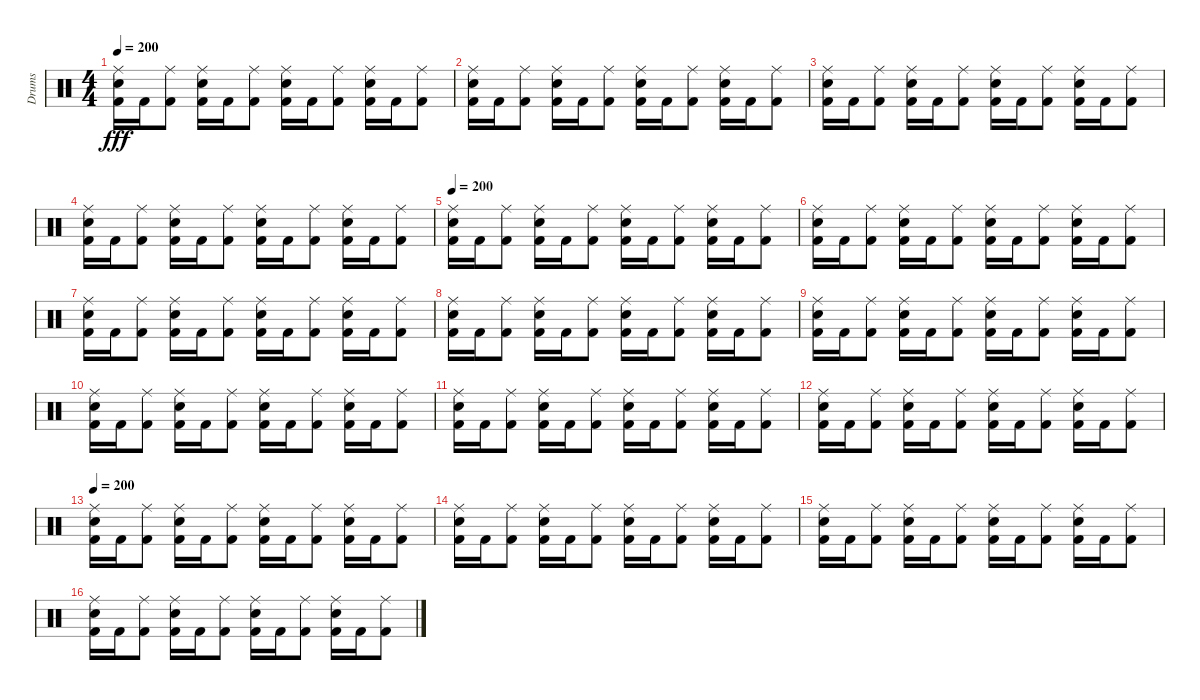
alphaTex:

\track ("Drums" "Drums") {instrument percussion}
\staff {score}
\articulation defaults
\ts (4 4)
\tempo 200
\clef neutral
\ks c
("Ride (middle)" "Electric Snare (hit)" "Kick (hit) 2").16{dy fff} "Kick (hit) 2".16 ("Ride (middle)" "Kick (hit) 2").8 ("Ride (middle)" "Electric Snare (hit)" "Kick (hit) 2").16 "Kick (hit) 2".16 ("Ride (middle)" "Kick (hit) 2").8 ("Ride (middle)" "Electric Snare (hit)" "Kick (hit) 2").16 "Kick (hit) 2".16 ("Ride (middle)" "Kick (hit) 2").8 ("Ride (middle)" "Electric Snare (hit)" "Kick (hit) 2").16 "Kick (hit) 2".16 ("Ride (middle)" "Kick (hit) 2").8 |
("Ride (middle)" "Electric Snare (hit)" "Kick (hit) 2").16 "Kick (hit) 2".16 ("Ride (middle)" "Kick (hit) 2").8 ("Ride (middle)" "Electric Snare (hit)" "Kick (hit) 2").16 "Kick (hit) 2".16 ("Ride (middle)" "Kick (hit) 2").8 ("Ride (middle)" "Electric Snare (hit)" "Kick (hit) 2").16 "Kick (hit) 2".16 ("Ride (middle)" "Kick (hit) 2").8 ("Ride (middle)" "Electric Snare (hit)" "Kick (hit) 2").16 "Kick (hit) 2".16 ("Ride (middle)" "Kick (hit) 2").8 |
("Ride (middle)" "Electric Snare (hit)" "Kick (hit) 2").16 "Kick (hit) 2".16 ("Ride (middle)" "Kick (hit) 2").8 ("Ride (middle)" "Electric Snare (hit)" "Kick (hit) 2").16 "Kick (hit) 2".16 ("Ride (middle)" "Kick (hit) 2").8 ("Ride (middle)" "Electric Snare (hit)" "Kick (hit) 2").16 "Kick (hit) 2".16 ("Ride (middle)" "Kick (hit) 2").8 ("Ride (middle)" "Electric Snare (hit)" "Kick (hit) 2").16 "Kick (hit) 2".16 ("Ride (middle)" "Kick (hit) 2").8 |
("Ride (middle)" "Electric Snare (hit)" "Kick (hit) 2").16 "Kick (hit) 2".16 ("Ride (middle)" "Kick (hit) 2").8 ("Ride (middle)" "Electric Snare (hit)" "Kick (hit) 2").16 "Kick (hit) 2".16 ("Ride (middle)" "Kick (hit) 2").8 ("Ride (middle)" "Electric Snare (hit)" "Kick (hit) 2").16 "Kick (hit) 2".16 ("Ride (middle)" "Kick (hit) 2").8 ("Ride (middle)" "Electric Snare (hit)" "Kick (hit) 2").16 "Kick (hit) 2".16 ("Ride (middle)" "Kick (hit) 2").8 |
\tempo 200
("Ride (middle)" "Electric Snare (hit)" "Kick (hit) 2").16 "Kick (hit) 2".16 ("Ride (middle)" "Kick (hit) 2").8 ("Ride (middle)" "Electric Snare (hit)" "Kick (hit) 2").16 "Kick (hit) 2".16 ("Ride (middle)" "Kick (hit) 2").8 ("Ride (middle)" "Electric Snare (hit)" "Kick (hit) 2").16 "Kick (hit) 2".16 ("Ride (middle)" "Kick (hit) 2").8 ("Ride (middle)" "Electric Snare (hit)" "Kick (hit) 2").16 "Kick (hit) 2".16 ("Ride (middle)" "Kick (hit) 2").8 |
("Ride (middle)" "Electric Snare (hit)" "Kick (hit) 2").16 "Kick (hit) 2".16 ("Ride (middle)" "Kick (hit) 2").8 ("Ride (middle)" "Electric Snare (hit)" "Kick (hit) 2").16 "Kick (hit) 2".16 ("Ride (middle)" "Kick (hit) 2").8 ("Ride (middle)" "Electric Snare (hit)" "Kick (hit) 2").16 "Kick (hit) 2".16 ("Ride (middle)" "Kick (hit) 2").8 ("Ride (middle)" "Electric Snare (hit)" "Kick (hit) 2").16 "Kick (hit) 2".16 ("Ride (middle)" "Kick (hit) 2").8 |
("Ride (middle)" "Electric Snare (hit)" "Kick (hit) 2").16 "Kick (hit) 2".16 ("Ride (middle)" "Kick (hit) 2").8 ("Ride (middle)" "Electric Snare (hit)" "Kick (hit) 2").16 "Kick (hit) 2".16 ("Ride (middle)" "Kick (hit) 2").8 ("Ride (middle)" "Electric Snare (hit)" "Kick (hit) 2").16 "Kick (hit) 2".16 ("Ride (middle)" "Kick (hit) 2").8 ("Ride (middle)" "Electric Snare (hit)" "Kick (hit) 2").16 "Kick (hit) 2".16 ("Ride (middle)" "Kick (hit) 2").8 |
("Ride (middle)" "Electric Snare (hit)" "Kick (hit) 2").16 "Kick (hit) 2".16 ("Ride (middle)" "Kick (hit) 2").8 ("Ride (middle)" "Electric Snare (hit)" "Kick (hit) 2").16 "Kick (hit) 2".16 ("Ride (middle)" "Kick (hit) 2").8 ("Ride (middle)" "Electric Snare (hit)" "Kick (hit) 2").16 "Kick (hit) 2".16 ("Ride (middle)" "Kick (hit) 2").8 ("Ride (middle)" "Electric Snare (hit)" "Kick (hit) 2").16 "Kick (hit) 2".16 ("Ride (middle)" "Kick (hit) 2").8 |
("Ride (middle)" "Electric Snare (hit)" "Kick (hit) 2").16 "Kick (hit) 2".16 ("Ride (middle)" "Kick (hit) 2").8 ("Ride (middle)" "Electric Snare (hit)" "Kick (hit) 2").16 "Kick (hit) 2".16 ("Ride (middle)" "Kick (hit) 2").8 ("Ride (middle)" "Electric Snare (hit)" "Kick (hit) 2").16 "Kick (hit) 2".16 ("Ride (middle)" "Kick (hit) 2").8 ("Ride (middle)" "Electric Snare (hit)" "Kick (hit) 2").16 "Kick (hit) 2".16 ("Ride (middle)" "Kick (hit) 2").8 |
("Ride (middle)" "Electric Snare (hit)" "Kick (hit) 2").16 "Kick (hit) 2".16 ("Ride (middle)" "Kick (hit) 2").8 ("Ride (middle)" "Electric Snare (hit)" "Kick (hit) 2").16 "Kick (hit) 2".16 ("Ride (middle)" "Kick (hit) 2").8 ("Ride (middle)" "Electric Snare (hit)" "Kick (hit) 2").16 "Kick (hit) 2".16 ("Ride (middle)" "Kick (hit) 2").8 ("Ride (middle)" "Electric Snare (hit)" "Kick (hit) 2").16 "Kick (hit) 2".16 ("Ride (middle)" "Kick (hit) 2").8 |
("Ride (middle)" "Electric Snare (hit)" "Kick (hit) 2").16 "Kick (hit) 2".16 ("Ride (middle)" "Kick (hit) 2").8 ("Ride (middle)" "Electric Snare (hit)" "Kick (hit) 2").16 "Kick (hit) 2".16 ("Ride (middle)" "Kick (hit) 2").8 ("Ride (middle)" "Electric Snare (hit)" "Kick (hit) 2").16 "Kick (hit) 2".16 ("Ride (middle)" "Kick (hit) 2").8 ("Ride (middle)" "Electric Snare (hit)" "Kick (hit) 2").16 "Kick (hit) 2".16 ("Ride (middle)" "Kick (hit) 2").8 |
("Ride (middle)" "Electric Snare (hit)" "Kick (hit) 2").16 "Kick (hit) 2".16 ("Ride (middle)" "Kick (hit) 2").8 ("Ride (middle)" "Electric Snare (hit)" "Kick (hit) 2").16 "Kick (hit) 2".16 ("Ride (middle)" "Kick (hit) 2").8 ("Ride (middle)" "Electric Snare (hit)" "Kick (hit) 2").16 "Kick (hit) 2".16 ("Ride (middle)" "Kick (hit) 2").8 ("Ride (middle)" "Electric Snare (hit)" "Kick (hit) 2").16 "Kick (hit) 2".16 ("Ride (middle)" "Kick (hit) 2").8 |
\tempo 200
("Ride (middle)" "Electric Snare (hit)" "Kick (hit) 2").16 "Kick (hit) 2".16 ("Ride (middle)" "Kick (hit) 2").8 ("Ride (middle)" "Electric Snare (hit)" "Kick (hit) 2").16 "Kick (hit) 2".16 ("Ride (middle)" "Kick (hit) 2").8 ("Ride (middle)" "Electric Snare (hit)" "Kick (hit) 2").16 "Kick (hit) 2".16 ("Ride (middle)" "Kick (hit) 2").8 ("Ride (middle)" "Electric Snare (hit)" "Kick (hit) 2").16 "Kick (hit) 2".16 ("Ride (middle)" "Kick (hit) 2").8 |
("Ride (middle)" "Electric Snare (hit)" "Kick (hit) 2").16 "Kick (hit) 2".16 ("Ride (middle)" "Kick (hit) 2").8 ("Ride (middle)" "Electric Snare (hit)" "Kick (hit) 2").16 "Kick (hit) 2".16 ("Ride (middle)" "Kick (hit) 2").8 ("Ride (middle)" "Electric Snare (hit)" "Kick (hit) 2").16 "Kick (hit) 2".16 ("Ride (middle)" "Kick (hit) 2").8 ("Ride (middle)" "Electric Snare (hit)" "Kick (hit) 2").16 "Kick (hit) 2".16 ("Ride (middle)" "Kick (hit) 2").8 |
("Ride (middle)" "Electric Snare (hit)" "Kick (hit) 2").16 "Kick (hit) 2".16 ("Ride (middle)" "Kick (hit) 2").8 ("Ride (middle)" "Electric Snare (hit)" "Kick (hit) 2").16 "Kick (hit) 2".16 ("Ride (middle)" "Kick (hit) 2").8 ("Ride (middle)" "Electric Snare (hit)" "Kick (hit) 2").16 "Kick (hit) 2".16 ("Ride (middle)" "Kick (hit) 2").8 ("Ride (middle)" "Electric Snare (hit)" "Kick (hit) 2").16 "Kick (hit) 2".16 ("Ride (middle)" "Kick (hit) 2").8 |
("Ride (middle)" "Electric Snare (hit)" "Kick (hit) 2").16 "Kick (hit) 2".16 ("Ride (middle)" "Kick (hit) 2").8 ("Ride (middle)" "Electric Snare (hit)" "Kick (hit) 2").16 "Kick (hit) 2".16 ("Ride (middle)" "Kick (hit) 2").8 ("Ride (middle)" "Electric Snare (hit)" "Kick (hit) 2").16 "Kick (hit) 2".16 ("Ride (middle)" "Kick (hit) 2").8 ("Ride (middle)" "Electric Snare (hit)" "Kick (hit) 2").16 "Kick (hit) 2".16 ("Ride (middle)" "Kick (hit) 2").8
